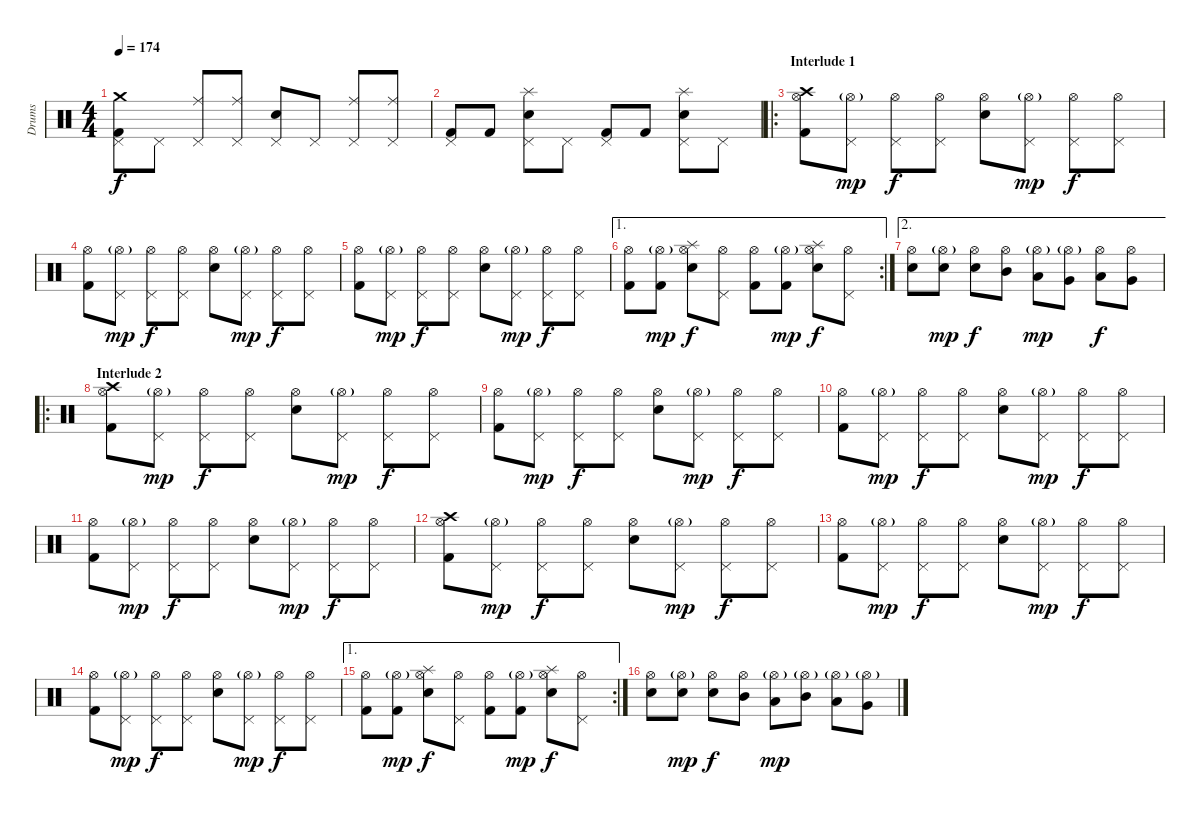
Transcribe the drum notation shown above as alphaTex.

\track ("Drums" "Drums") {instrument percussion}
\staff {score}
\articulation defaults
\ts (4 4)
\tempo 174
\clef neutral
\ks c
("Kick (hit) 2" "Pedal Hi-Hat (hit)" "Crash medium (hit)").8{dy f} "Pedal Hi-Hat (hit)".8 ("Pedal Hi-Hat (hit)" "Ride (middle)").8 ("Pedal Hi-Hat (hit)" "Ride (middle)").8 ("Snare (hit) 2" "Pedal Hi-Hat (hit)").8 "Pedal Hi-Hat (hit)".8 ("Pedal Hi-Hat (hit)" "Ride (middle)").8 ("Pedal Hi-Hat (hit)" "Ride (middle)").8 |
("Kick (hit) 2" "Pedal Hi-Hat (hit)").8 "Kick (hit) 2".8 ("Snare (hit) 2" "Pedal Hi-Hat (hit)" "Splash (hit)").8 "Pedal Hi-Hat (hit)".8 ("Kick (hit) 2" "Pedal Hi-Hat (hit)").8 "Kick (hit) 2".8 ("Snare (hit) 2" "Pedal Hi-Hat (hit)" "Splash (hit)").8 "Pedal Hi-Hat (hit)".8 |
\ro
\section ("" "Interlude 1")
("Kick (hit) 2" "Hi-Hat (open)" "Crash high (hit)").8 ("Pedal Hi-Hat (hit)" "Hi-Hat (open)"{g}).8{dy mp} ("Pedal Hi-Hat (hit)" "Hi-Hat (open)").8{dy f} ("Pedal Hi-Hat (hit)" "Hi-Hat (open)").8 ("Snare (hit) 2" "Hi-Hat (open)").8 ("Pedal Hi-Hat (hit)" "Hi-Hat (open)"{g}).8{dy mp} ("Pedal Hi-Hat (hit)" "Hi-Hat (open)").8{dy f} ("Pedal Hi-Hat (hit)" "Hi-Hat (open)").8 |
("Kick (hit) 2" "Hi-Hat (open)").8 ("Pedal Hi-Hat (hit)" "Hi-Hat (open)"{g}).8{dy mp} ("Pedal Hi-Hat (hit)" "Hi-Hat (open)").8{dy f} ("Pedal Hi-Hat (hit)" "Hi-Hat (open)").8 ("Snare (hit) 2" "Hi-Hat (open)").8 ("Pedal Hi-Hat (hit)" "Hi-Hat (open)"{g}).8{dy mp} ("Pedal Hi-Hat (hit)" "Hi-Hat (open)").8{dy f} ("Pedal Hi-Hat (hit)" "Hi-Hat (open)").8 |
("Kick (hit) 2" "Hi-Hat (open)").8 ("Pedal Hi-Hat (hit)" "Hi-Hat (open)"{g}).8{dy mp} ("Pedal Hi-Hat (hit)" "Hi-Hat (open)").8{dy f} ("Pedal Hi-Hat (hit)" "Hi-Hat (open)").8 ("Snare (hit) 2" "Hi-Hat (open)").8 ("Pedal Hi-Hat (hit)" "Hi-Hat (open)"{g}).8{dy mp} ("Pedal Hi-Hat (hit)" "Hi-Hat (open)").8{dy f} ("Pedal Hi-Hat (hit)" "Hi-Hat (open)").8 |
\ae 1
\rc 2
("Kick (hit) 2" "Hi-Hat (open)").8 ("Kick (hit) 2" "Hi-Hat (open)"{g}).8{dy mp} ("Snare (hit) 2" "Hi-Hat (open)" "Splash (hit)").8{dy f} ("Pedal Hi-Hat (hit)" "Hi-Hat (open)").8 ("Kick (hit) 2" "Hi-Hat (open)").8 ("Kick (hit) 2" "Hi-Hat (open)"{g}).8{dy mp} ("Snare (hit) 2" "Hi-Hat (open)" "Splash (hit)").8{dy f} ("Pedal Hi-Hat (hit)" "Hi-Hat (open)").8 |
\ae 2
("Snare (hit) 2" "Hi-Hat (open)").8 ("Snare (hit) 2" "Hi-Hat (open)"{g}).8{dy mp} ("Snare (hit) 2" "Hi-Hat (open)").8{dy f} ("Mid Tom (hit)" "Hi-Hat (open)").8 ("Low Tom (hit)" "Hi-Hat (open)"{g}).8{dy mp} ("Very Low Tom (hit)" "Hi-Hat (open)"{g}).8 ("Low Floor Tom (hit)" "Hi-Hat (open)").8{dy f} ("Very Low Tom (hit)" "Hi-Hat (open)").8 |
\ro
\section ("" "Interlude 2")
("Kick (hit) 2" "Hi-Hat (open)" "Crash high (hit)").8 ("Pedal Hi-Hat (hit)" "Hi-Hat (open)"{g}).8{dy mp} ("Pedal Hi-Hat (hit)" "Hi-Hat (open)").8{dy f} ("Pedal Hi-Hat (hit)" "Hi-Hat (open)").8 ("Snare (hit) 2" "Hi-Hat (open)").8 ("Pedal Hi-Hat (hit)" "Hi-Hat (open)"{g}).8{dy mp} ("Pedal Hi-Hat (hit)" "Hi-Hat (open)").8{dy f} ("Pedal Hi-Hat (hit)" "Hi-Hat (open)").8 |
("Kick (hit) 2" "Hi-Hat (open)").8 ("Pedal Hi-Hat (hit)" "Hi-Hat (open)"{g}).8{dy mp} ("Pedal Hi-Hat (hit)" "Hi-Hat (open)").8{dy f} ("Pedal Hi-Hat (hit)" "Hi-Hat (open)").8 ("Snare (hit) 2" "Hi-Hat (open)").8 ("Pedal Hi-Hat (hit)" "Hi-Hat (open)"{g}).8{dy mp} ("Pedal Hi-Hat (hit)" "Hi-Hat (open)").8{dy f} ("Pedal Hi-Hat (hit)" "Hi-Hat (open)").8 |
("Kick (hit) 2" "Hi-Hat (open)").8 ("Pedal Hi-Hat (hit)" "Hi-Hat (open)"{g}).8{dy mp} ("Pedal Hi-Hat (hit)" "Hi-Hat (open)").8{dy f} ("Pedal Hi-Hat (hit)" "Hi-Hat (open)").8 ("Snare (hit) 2" "Hi-Hat (open)").8 ("Pedal Hi-Hat (hit)" "Hi-Hat (open)"{g}).8{dy mp} ("Pedal Hi-Hat (hit)" "Hi-Hat (open)").8{dy f} ("Pedal Hi-Hat (hit)" "Hi-Hat (open)").8 |
("Kick (hit) 2" "Hi-Hat (open)").8 ("Pedal Hi-Hat (hit)" "Hi-Hat (open)"{g}).8{dy mp} ("Pedal Hi-Hat (hit)" "Hi-Hat (open)").8{dy f} ("Pedal Hi-Hat (hit)" "Hi-Hat (open)").8 ("Snare (hit) 2" "Hi-Hat (open)").8 ("Pedal Hi-Hat (hit)" "Hi-Hat (open)"{g}).8{dy mp} ("Pedal Hi-Hat (hit)" "Hi-Hat (open)").8{dy f} ("Pedal Hi-Hat (hit)" "Hi-Hat (open)").8 |
("Kick (hit) 2" "Hi-Hat (open)" "Crash high (hit)").8 ("Pedal Hi-Hat (hit)" "Hi-Hat (open)"{g}).8{dy mp} ("Pedal Hi-Hat (hit)" "Hi-Hat (open)").8{dy f} ("Pedal Hi-Hat (hit)" "Hi-Hat (open)").8 ("Snare (hit) 2" "Hi-Hat (open)").8 ("Pedal Hi-Hat (hit)" "Hi-Hat (open)"{g}).8{dy mp} ("Pedal Hi-Hat (hit)" "Hi-Hat (open)").8{dy f} ("Pedal Hi-Hat (hit)" "Hi-Hat (open)").8 |
("Kick (hit) 2" "Hi-Hat (open)").8 ("Pedal Hi-Hat (hit)" "Hi-Hat (open)"{g}).8{dy mp} ("Pedal Hi-Hat (hit)" "Hi-Hat (open)").8{dy f} ("Pedal Hi-Hat (hit)" "Hi-Hat (open)").8 ("Snare (hit) 2" "Hi-Hat (open)").8 ("Pedal Hi-Hat (hit)" "Hi-Hat (open)"{g}).8{dy mp} ("Pedal Hi-Hat (hit)" "Hi-Hat (open)").8{dy f} ("Pedal Hi-Hat (hit)" "Hi-Hat (open)").8 |
("Kick (hit) 2" "Hi-Hat (open)").8 ("Pedal Hi-Hat (hit)" "Hi-Hat (open)"{g}).8{dy mp} ("Pedal Hi-Hat (hit)" "Hi-Hat (open)").8{dy f} ("Pedal Hi-Hat (hit)" "Hi-Hat (open)").8 ("Snare (hit) 2" "Hi-Hat (open)").8 ("Pedal Hi-Hat (hit)" "Hi-Hat (open)"{g}).8{dy mp} ("Pedal Hi-Hat (hit)" "Hi-Hat (open)").8{dy f} ("Pedal Hi-Hat (hit)" "Hi-Hat (open)").8 |
\ae 1
\rc 2
("Kick (hit) 2" "Hi-Hat (open)").8 ("Kick (hit) 2" "Hi-Hat (open)"{g}).8{dy mp} ("Snare (hit) 2" "Hi-Hat (open)" "Splash (hit)").8{dy f} ("Pedal Hi-Hat (hit)" "Hi-Hat (open)").8 ("Kick (hit) 2" "Hi-Hat (open)").8 ("Kick (hit) 2" "Hi-Hat (open)"{g}).8{dy mp} ("Snare (hit) 2" "Hi-Hat (open)" "Splash (hit)").8{dy f} ("Pedal Hi-Hat (hit)" "Hi-Hat (open)").8 |
("Snare (hit) 2" "Hi-Hat (open)").8 ("Snare (hit) 2" "Hi-Hat (open)"{g}).8{dy mp} ("Snare (hit) 2" "Hi-Hat (open)").8{dy f} ("Mid Tom (hit)" "Hi-Hat (open)").8 ("Low Tom (hit)" "Hi-Hat (open)"{g}).8{dy mp} ("Mid Tom (hit)" "Hi-Hat (open)"{g}).8 ("Low Tom (hit)" "Hi-Hat (open)"{g}).8 ("Very Low Tom (hit)" "Hi-Hat (open)"{g}).8
